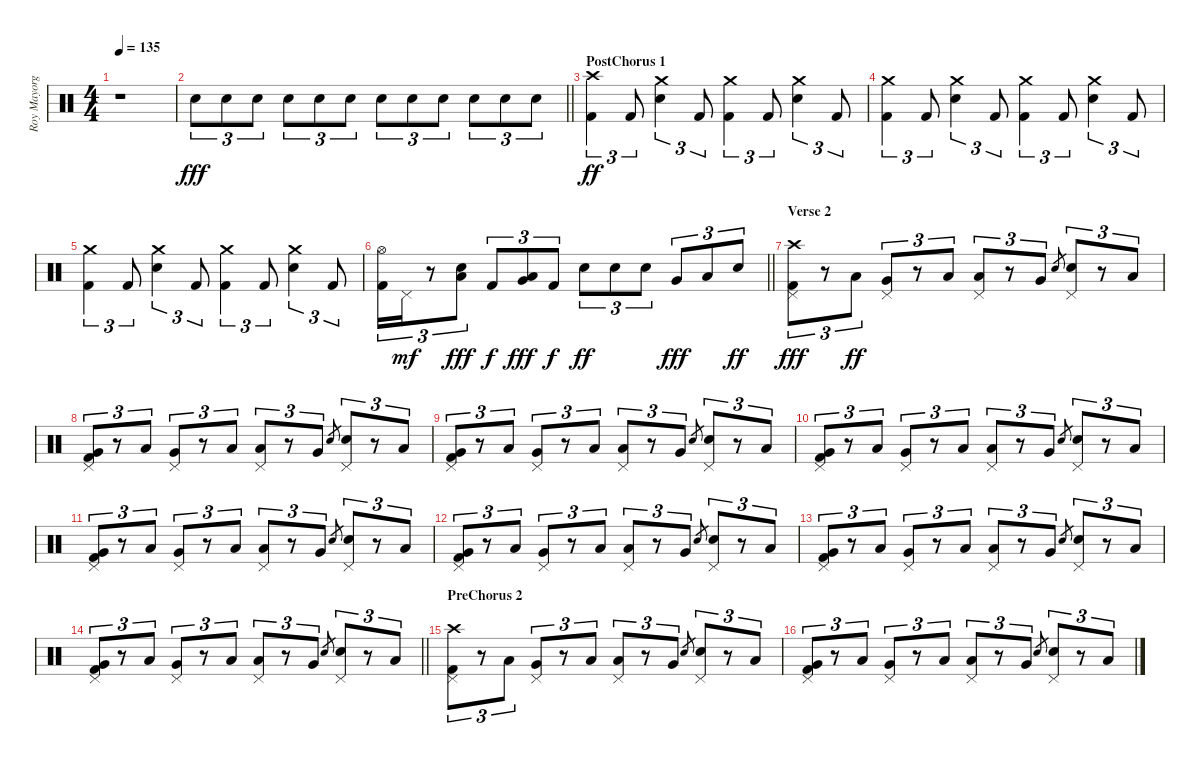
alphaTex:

\track ("Roy Mayorga" "Roy Mayorg") {instrument percussion}
\staff {score}
\articulation defaults
\ts (4 4)
\tempo 135
\clef neutral
\ks c
r.1{dy ff} |
\barLineRight lightlight "Electric Snare (hit)".8{tu (3 2) dy fff} "Electric Snare (hit)".8{tu (3 2)} "Electric Snare (hit)".8{tu (3 2)} "Electric Snare (hit)".8{tu (3 2)} "Electric Snare (hit)".8{tu (3 2)} "Electric Snare (hit)".8{tu (3 2)} "Electric Snare (hit)".8{tu (3 2)} "Electric Snare (hit)".8{tu (3 2)} "Electric Snare (hit)".8{tu (3 2)} "Electric Snare (hit)".8{tu (3 2)} "Electric Snare (hit)".8{tu (3 2)} "Electric Snare (hit)".8{tu (3 2)}
|
\section ("" "PostChorus 1")
("Crash high (hit)" "Kick (hit) 2").4{tu (3 2) dy ff} "Kick (hit) 2".8{tu (3 2)} ("Crash medium (hit)" "Electric Snare (hit)").4{tu (3 2)} "Kick (hit) 2".8{tu (3 2)} ("Crash medium (hit)" "Kick (hit) 2").4{tu (3 2)} "Kick (hit) 2".8{tu (3 2)} ("Crash medium (hit)" "Electric Snare (hit)").4{tu (3 2)} "Kick (hit) 2".8{tu (3 2)} |
("Crash medium (hit)" "Kick (hit) 2").4{tu (3 2)} "Kick (hit) 2".8{tu (3 2)} ("Crash medium (hit)" "Electric Snare (hit)").4{tu (3 2)} "Kick (hit) 2".8{tu (3 2)} ("Crash medium (hit)" "Kick (hit) 2").4{tu (3 2)} "Kick (hit) 2".8{tu (3 2)} ("Crash medium (hit)" "Electric Snare (hit)").4{tu (3 2)} "Kick (hit) 2".8{tu (3 2)} |
("Crash medium (hit)" "Kick (hit) 2").4{tu (3 2)} "Kick (hit) 2".8{tu (3 2)} ("Crash medium (hit)" "Electric Snare (hit)").4{tu (3 2)} "Kick (hit) 2".8{tu (3 2)} ("Crash medium (hit)" "Kick (hit) 2").4{tu (3 2)} "Kick (hit) 2".8{tu (3 2)} ("Crash medium (hit)" "Electric Snare (hit)").4{tu (3 2)} "Kick (hit) 2".8{tu (3 2)} |
\barLineRight lightlight
("Hi-Hat (open)" "Kick (hit) 2").16{tu (3 2)} "Pedal Hi-Hat (hit)".16{tu (3 2) dy mf} r.8{tu (3 2)} ("Electric Snare (hit)" "Low Floor Tom (hit)").8{tu (3 2) dy fff} "Kick (hit) 2".8{tu (3 2) dy f} ("Very Low Tom (hit)" "Low Floor Tom (hit)").8{tu (3 2) dy fff} "Kick (hit) 2".8{tu (3 2) dy f} "Electric Snare (hit)".8{tu (3 2) dy ff} "Electric Snare (hit)".8{tu (3 2)} "Electric Snare (hit)".8{tu (3 2)} "Very Low Tom (hit)".8{tu (3 2) dy fff} "Low Floor Tom (hit)".8{tu (3 2)} "Electric Snare (hit)".8{tu (3 2) dy ff} |
\section ("" "Verse 2")
("Crash high (hit)" "Pedal Hi-Hat (hit)" "Kick (hit) 2").8{tu (3 2) dy fff} r.8{tu (3 2)} "Low Tom (hit)".8{tu (3 2) dy ff} ("Very Low Tom (hit)" "Pedal Hi-Hat (hit)").8{tu (3 2)} r.8{tu (3 2)} "Low Tom (hit)".8{tu (3 2)} ("Low Floor Tom (hit)" "Pedal Hi-Hat (hit)").8{tu (3 2)} r.8{tu (3 2)} "Very Low Tom (hit)".8{tu (3 2)} "Electric Snare (hit)".8{gr} ("Electric Snare (hit)" "Pedal Hi-Hat (hit)").8{tu (3 2)} r.8{tu (3 2)} "Low Floor Tom (hit)".8{tu (3 2)} |
("Pedal Hi-Hat (hit)" "Very Low Tom (hit)" "Kick (hit) 2").8{tu (3 2)} r.8{tu (3 2)} "Low Tom (hit)".8{tu (3 2)} ("Very Low Tom (hit)" "Pedal Hi-Hat (hit)").8{tu (3 2)} r.8{tu (3 2)} "Low Tom (hit)".8{tu (3 2)} ("Low Floor Tom (hit)" "Pedal Hi-Hat (hit)").8{tu (3 2)} r.8{tu (3 2)} "Very Low Tom (hit)".8{tu (3 2)} "Electric Snare (hit)".8{gr} ("Electric Snare (hit)" "Pedal Hi-Hat (hit)").8{tu (3 2)} r.8{tu (3 2)} "Low Floor Tom (hit)".8{tu (3 2)} |
("Pedal Hi-Hat (hit)" "Very Low Tom (hit)" "Kick (hit) 2").8{tu (3 2)} r.8{tu (3 2)} "Low Tom (hit)".8{tu (3 2)} ("Very Low Tom (hit)" "Pedal Hi-Hat (hit)").8{tu (3 2)} r.8{tu (3 2)} "Low Tom (hit)".8{tu (3 2)} ("Low Floor Tom (hit)" "Pedal Hi-Hat (hit)").8{tu (3 2)} r.8{tu (3 2)} "Very Low Tom (hit)".8{tu (3 2)} "Electric Snare (hit)".8{gr} ("Electric Snare (hit)" "Pedal Hi-Hat (hit)").8{tu (3 2)} r.8{tu (3 2)} "Low Floor Tom (hit)".8{tu (3 2)} |
("Pedal Hi-Hat (hit)" "Very Low Tom (hit)" "Kick (hit) 2").8{tu (3 2)} r.8{tu (3 2)} "Low Tom (hit)".8{tu (3 2)} ("Very Low Tom (hit)" "Pedal Hi-Hat (hit)").8{tu (3 2)} r.8{tu (3 2)} "Low Tom (hit)".8{tu (3 2)} ("Low Floor Tom (hit)" "Pedal Hi-Hat (hit)").8{tu (3 2)} r.8{tu (3 2)} "Very Low Tom (hit)".8{tu (3 2)} "Electric Snare (hit)".8{gr} ("Electric Snare (hit)" "Pedal Hi-Hat (hit)").8{tu (3 2)} r.8{tu (3 2)} "Low Floor Tom (hit)".8{tu (3 2)} |
("Pedal Hi-Hat (hit)" "Very Low Tom (hit)" "Kick (hit) 2").8{tu (3 2)} r.8{tu (3 2)} "Low Tom (hit)".8{tu (3 2)} ("Very Low Tom (hit)" "Pedal Hi-Hat (hit)").8{tu (3 2)} r.8{tu (3 2)} "Low Tom (hit)".8{tu (3 2)} ("Low Floor Tom (hit)" "Pedal Hi-Hat (hit)").8{tu (3 2)} r.8{tu (3 2)} "Very Low Tom (hit)".8{tu (3 2)} "Electric Snare (hit)".8{gr} ("Electric Snare (hit)" "Pedal Hi-Hat (hit)").8{tu (3 2)} r.8{tu (3 2)} "Low Floor Tom (hit)".8{tu (3 2)} |
("Pedal Hi-Hat (hit)" "Very Low Tom (hit)" "Kick (hit) 2").8{tu (3 2)} r.8{tu (3 2)} "Low Tom (hit)".8{tu (3 2)} ("Very Low Tom (hit)" "Pedal Hi-Hat (hit)").8{tu (3 2)} r.8{tu (3 2)} "Low Tom (hit)".8{tu (3 2)} ("Low Floor Tom (hit)" "Pedal Hi-Hat (hit)").8{tu (3 2)} r.8{tu (3 2)} "Very Low Tom (hit)".8{tu (3 2)} "Electric Snare (hit)".8{gr} ("Electric Snare (hit)" "Pedal Hi-Hat (hit)").8{tu (3 2)} r.8{tu (3 2)} "Low Floor Tom (hit)".8{tu (3 2)} |
("Pedal Hi-Hat (hit)" "Very Low Tom (hit)" "Kick (hit) 2").8{tu (3 2)} r.8{tu (3 2)} "Low Tom (hit)".8{tu (3 2)} ("Very Low Tom (hit)" "Pedal Hi-Hat (hit)").8{tu (3 2)} r.8{tu (3 2)} "Low Tom (hit)".8{tu (3 2)} ("Low Floor Tom (hit)" "Pedal Hi-Hat (hit)").8{tu (3 2)} r.8{tu (3 2)} "Very Low Tom (hit)".8{tu (3 2)} "Electric Snare (hit)".8{gr} ("Electric Snare (hit)" "Pedal Hi-Hat (hit)").8{tu (3 2)} r.8{tu (3 2)} "Low Floor Tom (hit)".8{tu (3 2)} |
\barLineRight lightlight
("Pedal Hi-Hat (hit)" "Very Low Tom (hit)" "Kick (hit) 2").8{tu (3 2)} r.8{tu (3 2)} "Low Tom (hit)".8{tu (3 2)} ("Very Low Tom (hit)" "Pedal Hi-Hat (hit)").8{tu (3 2)} r.8{tu (3 2)} "Low Tom (hit)".8{tu (3 2)} ("Low Floor Tom (hit)" "Pedal Hi-Hat (hit)").8{tu (3 2)} r.8{tu (3 2)} "Very Low Tom (hit)".8{tu (3 2)} "Electric Snare (hit)".8{gr} ("Electric Snare (hit)" "Pedal Hi-Hat (hit)").8{tu (3 2)} r.8{tu (3 2)} "Low Floor Tom (hit)".8{tu (3 2)} |
\section ("" "PreChorus 2")
("Crash high (hit)" "Pedal Hi-Hat (hit)" "Kick (hit) 2").8{tu (3 2)} r.8{tu (3 2)} "Low Tom (hit)".8{tu (3 2)} ("Very Low Tom (hit)" "Pedal Hi-Hat (hit)").8{tu (3 2)} r.8{tu (3 2)} "Low Tom (hit)".8{tu (3 2)} ("Low Floor Tom (hit)" "Pedal Hi-Hat (hit)").8{tu (3 2)} r.8{tu (3 2)} "Very Low Tom (hit)".8{tu (3 2)} "Electric Snare (hit)".8{gr} ("Electric Snare (hit)" "Pedal Hi-Hat (hit)").8{tu (3 2)} r.8{tu (3 2)} "Low Floor Tom (hit)".8{tu (3 2)} |
("Pedal Hi-Hat (hit)" "Very Low Tom (hit)" "Kick (hit) 2").8{tu (3 2)} r.8{tu (3 2)} "Low Tom (hit)".8{tu (3 2)} ("Very Low Tom (hit)" "Pedal Hi-Hat (hit)").8{tu (3 2)} r.8{tu (3 2)} "Low Tom (hit)".8{tu (3 2)} ("Low Floor Tom (hit)" "Pedal Hi-Hat (hit)").8{tu (3 2)} r.8{tu (3 2)} "Very Low Tom (hit)".8{tu (3 2)} "Electric Snare (hit)".8{gr} ("Electric Snare (hit)" "Pedal Hi-Hat (hit)").8{tu (3 2)} r.8{tu (3 2)} "Low Floor Tom (hit)".8{tu (3 2)}
